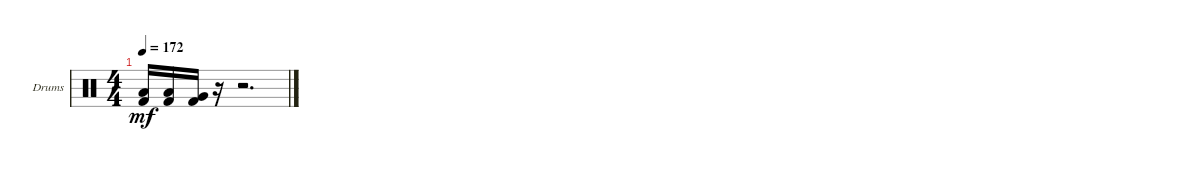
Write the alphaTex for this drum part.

\bracketExtendMode groupsimilarinstruments
\firstSystemTrackNameOrientation horizontal
\otherSystemsTrackNameOrientation horizontal
\track ("Drumkit" "Drums") {instrument percussion}
\staff {score}
\articulation defaults
\ts (4 4)
\tempo 172
\clef neutral
\ks c
("Kick (hit) 2" "Low Tom (hit)").16{dy mf} ("Kick (hit) 2" "Low Tom (hit)").16 ("Kick (hit) 2" "Very Low Tom (hit)").16 r.16 r.2{d}
